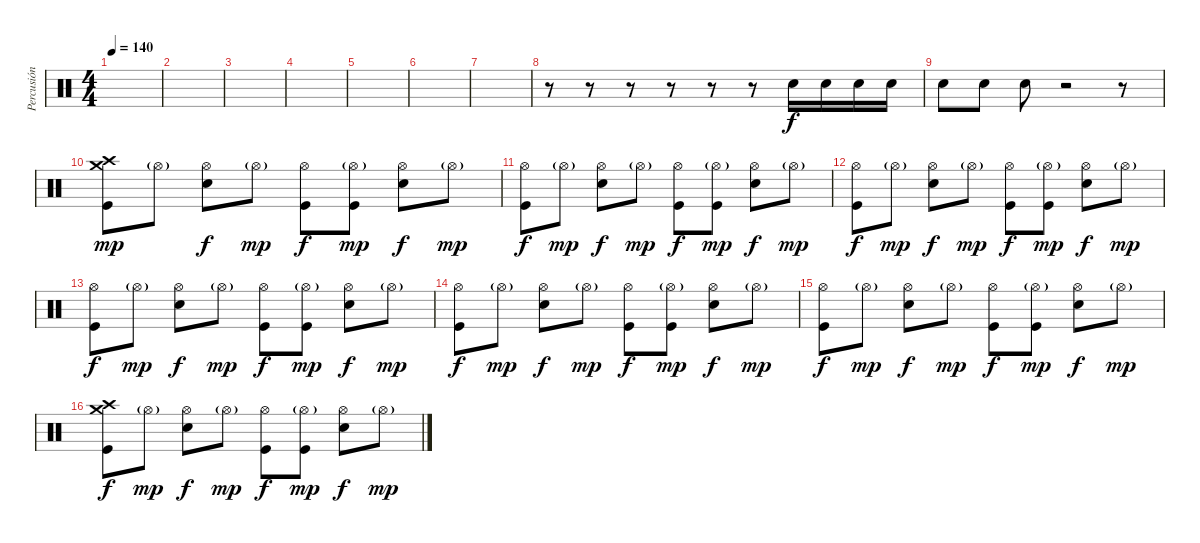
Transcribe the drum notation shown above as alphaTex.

\track ("Percusión" "Percusión") {instrument percussion}
\staff {score}
\articulation defaults
\ts (4 4)
\tempo 140
\clef neutral
\ks c
|
|
|
|
|
|
|
r.8 r.8 r.8 r.8 r.8 r.8 "Electric Snare (hit)".16 "Electric Snare (hit)".16 "Electric Snare (hit)".16 "Electric Snare (hit)".16 |
"Electric Snare (hit)".8 "Electric Snare (hit)".8 "Electric Snare (hit)".8 r.2 r.8 |
("Crash high (hit)" "Kick (hit)" "Crash medium (hit)").8{dy mp} "Hi-Hat (open)"{g}.8 ("Hi-Hat (open)" "Electric Snare (hit)").8{dy f} "Hi-Hat (open)"{g}.8{dy mp} ("Hi-Hat (open)" "Kick (hit)").8{dy f} ("Hi-Hat (open)"{g} "Kick (hit)").8{dy mp} ("Hi-Hat (open)" "Electric Snare (hit)").8{dy f} "Hi-Hat (open)"{g}.8{dy mp} |
("Hi-Hat (open)" "Kick (hit)").8{dy f} "Hi-Hat (open)"{g}.8{dy mp} ("Hi-Hat (open)" "Electric Snare (hit)").8{dy f} "Hi-Hat (open)"{g}.8{dy mp} ("Hi-Hat (open)" "Kick (hit)").8{dy f} ("Hi-Hat (open)"{g} "Kick (hit)").8{dy mp} ("Hi-Hat (open)" "Electric Snare (hit)").8{dy f} "Hi-Hat (open)"{g}.8{dy mp} |
("Hi-Hat (open)" "Kick (hit)").8{dy f} "Hi-Hat (open)"{g}.8{dy mp} ("Hi-Hat (open)" "Electric Snare (hit)").8{dy f} "Hi-Hat (open)"{g}.8{dy mp} ("Hi-Hat (open)" "Kick (hit)").8{dy f} ("Hi-Hat (open)"{g} "Kick (hit)").8{dy mp} ("Hi-Hat (open)" "Electric Snare (hit)").8{dy f} "Hi-Hat (open)"{g}.8{dy mp} |
("Hi-Hat (open)" "Kick (hit)").8{dy f} "Hi-Hat (open)"{g}.8{dy mp} ("Hi-Hat (open)" "Electric Snare (hit)").8{dy f} "Hi-Hat (open)"{g}.8{dy mp} ("Hi-Hat (open)" "Kick (hit)").8{dy f} ("Hi-Hat (open)"{g} "Kick (hit)").8{dy mp} ("Hi-Hat (open)" "Electric Snare (hit)").8{dy f} "Hi-Hat (open)"{g}.8{dy mp} |
("Hi-Hat (open)" "Kick (hit)").8{dy f} "Hi-Hat (open)"{g}.8{dy mp} ("Hi-Hat (open)" "Electric Snare (hit)").8{dy f} "Hi-Hat (open)"{g}.8{dy mp} ("Hi-Hat (open)" "Kick (hit)").8{dy f} ("Hi-Hat (open)"{g} "Kick (hit)").8{dy mp} ("Hi-Hat (open)" "Electric Snare (hit)").8{dy f} "Hi-Hat (open)"{g}.8{dy mp} |
("Hi-Hat (open)" "Kick (hit)").8{dy f} "Hi-Hat (open)"{g}.8{dy mp} ("Hi-Hat (open)" "Electric Snare (hit)").8{dy f} "Hi-Hat (open)"{g}.8{dy mp} ("Hi-Hat (open)" "Kick (hit)").8{dy f} ("Hi-Hat (open)"{g} "Kick (hit)").8{dy mp} ("Hi-Hat (open)" "Electric Snare (hit)").8{dy f} "Hi-Hat (open)"{g}.8{dy mp} |
("Crash medium (hit)" "Kick (hit)" "Crash high (hit)").8{dy f} "Hi-Hat (open)"{g}.8{dy mp} ("Hi-Hat (open)" "Electric Snare (hit)").8{dy f} "Hi-Hat (open)"{g}.8{dy mp} ("Hi-Hat (open)" "Kick (hit)").8{dy f} ("Hi-Hat (open)"{g} "Kick (hit)").8{dy mp} ("Hi-Hat (open)" "Electric Snare (hit)").8{dy f} "Hi-Hat (open)"{g}.8{dy mp}
